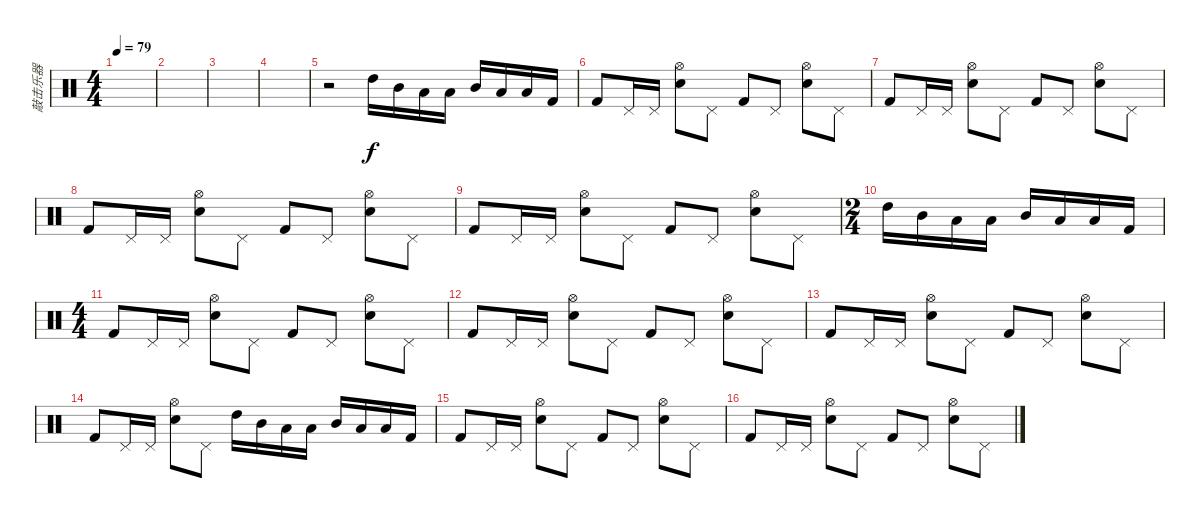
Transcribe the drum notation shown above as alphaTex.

\track ("敲击乐器" "敲击乐器") {instrument percussion}
\staff {score}
\articulation defaults
\ts (4 4)
\tempo 79
\clef neutral
\ks c
|
|
|
|
r.2 "High Tom (hit)".16 "Mid Tom (hit)".16 "Low Tom (hit)".16 "Low Floor Tom (hit)".16 "Mid Tom (hit)".16 "Low Tom (hit)".16 "Low Floor Tom (hit)".16 "Kick (hit) 2".16 |
"Kick (hit) 2".8 "Pedal Hi-Hat (hit)".16 "Pedal Hi-Hat (hit)".16 ("Hi-Hat (open)" "Electric Snare (hit)").8 "Pedal Hi-Hat (hit)".8 "Kick (hit) 2".8 "Pedal Hi-Hat (hit)".8 ("Hi-Hat (open)" "Electric Snare (hit)").8 "Pedal Hi-Hat (hit)".8 |
"Kick (hit) 2".8 "Pedal Hi-Hat (hit)".16 "Pedal Hi-Hat (hit)".16 ("Hi-Hat (open)" "Electric Snare (hit)").8 "Pedal Hi-Hat (hit)".8 "Kick (hit) 2".8 "Pedal Hi-Hat (hit)".8 ("Hi-Hat (open)" "Electric Snare (hit)").8 "Pedal Hi-Hat (hit)".8 |
"Kick (hit) 2".8 "Pedal Hi-Hat (hit)".16 "Pedal Hi-Hat (hit)".16 ("Hi-Hat (open)" "Electric Snare (hit)").8 "Pedal Hi-Hat (hit)".8 "Kick (hit) 2".8 "Pedal Hi-Hat (hit)".8 ("Hi-Hat (open)" "Electric Snare (hit)").8 "Pedal Hi-Hat (hit)".8 |
"Kick (hit) 2".8 "Pedal Hi-Hat (hit)".16 "Pedal Hi-Hat (hit)".16 ("Hi-Hat (open)" "Electric Snare (hit)").8 "Pedal Hi-Hat (hit)".8 "Kick (hit) 2".8 "Pedal Hi-Hat (hit)".8 ("Hi-Hat (open)" "Electric Snare (hit)").8 "Pedal Hi-Hat (hit)".8 |
\ts (2 4)
"High Tom (hit)".16 "Mid Tom (hit)".16 "Low Tom (hit)".16 "Low Floor Tom (hit)".16 "Mid Tom (hit)".16 "Low Tom (hit)".16 "Low Floor Tom (hit)".16 "Kick (hit) 2".16 |
\ts (4 4)
"Kick (hit) 2".8 "Pedal Hi-Hat (hit)".16 "Pedal Hi-Hat (hit)".16 ("Hi-Hat (open)" "Electric Snare (hit)").8 "Pedal Hi-Hat (hit)".8 "Kick (hit) 2".8 "Pedal Hi-Hat (hit)".8 ("Hi-Hat (open)" "Electric Snare (hit)").8 "Pedal Hi-Hat (hit)".8 |
"Kick (hit) 2".8 "Pedal Hi-Hat (hit)".16 "Pedal Hi-Hat (hit)".16 ("Hi-Hat (open)" "Electric Snare (hit)").8 "Pedal Hi-Hat (hit)".8 "Kick (hit) 2".8 "Pedal Hi-Hat (hit)".8 ("Hi-Hat (open)" "Electric Snare (hit)").8 "Pedal Hi-Hat (hit)".8 |
"Kick (hit) 2".8 "Pedal Hi-Hat (hit)".16 "Pedal Hi-Hat (hit)".16 ("Hi-Hat (open)" "Electric Snare (hit)").8 "Pedal Hi-Hat (hit)".8 "Kick (hit) 2".8 "Pedal Hi-Hat (hit)".8 ("Hi-Hat (open)" "Electric Snare (hit)").8 "Pedal Hi-Hat (hit)".8 |
"Kick (hit) 2".8 "Pedal Hi-Hat (hit)".16 "Pedal Hi-Hat (hit)".16 ("Hi-Hat (open)" "Electric Snare (hit)").8 "Pedal Hi-Hat (hit)".8 "High Tom (hit)".16 "Mid Tom (hit)".16 "Low Tom (hit)".16 "Low Floor Tom (hit)".16 "Mid Tom (hit)".16 "Low Tom (hit)".16 "Low Floor Tom (hit)".16 "Kick (hit) 2".16 |
"Kick (hit) 2".8 "Pedal Hi-Hat (hit)".16 "Pedal Hi-Hat (hit)".16 ("Hi-Hat (open)" "Electric Snare (hit)").8 "Pedal Hi-Hat (hit)".8 "Kick (hit) 2".8 "Pedal Hi-Hat (hit)".8 ("Hi-Hat (open)" "Electric Snare (hit)").8 "Pedal Hi-Hat (hit)".8 |
"Kick (hit) 2".8 "Pedal Hi-Hat (hit)".16 "Pedal Hi-Hat (hit)".16 ("Hi-Hat (open)" "Electric Snare (hit)").8 "Pedal Hi-Hat (hit)".8 "Kick (hit) 2".8 "Pedal Hi-Hat (hit)".8 ("Hi-Hat (open)" "Electric Snare (hit)").8 "Pedal Hi-Hat (hit)".8
